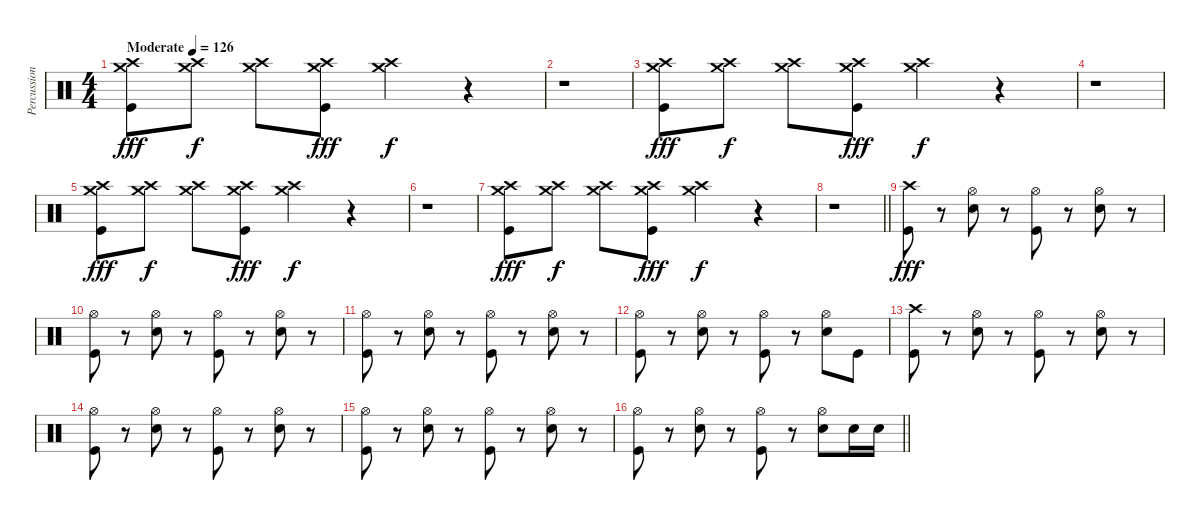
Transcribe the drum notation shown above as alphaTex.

\track ("Percussions" "Percussion") {instrument percussion}
\staff {score}
\articulation defaults
\ts (4 4)
\tempo (126 "Moderate")
\clef neutral
\ks c
("Crash high (hit)" "Crash medium (hit)" "Kick (hit)").8{dy fff} ("Crash high (hit)" "Crash medium (hit)").8{dy f} ("Crash high (hit)" "Crash medium (hit)").8 ("Crash high (hit)" "Crash medium (hit)" "Kick (hit)").8{dy fff} ("Crash high (hit)" "Crash medium (hit)").4{dy f} r.4 |
r.1 |
("Crash high (hit)" "Crash medium (hit)" "Kick (hit)").8{dy fff} ("Crash high (hit)" "Crash medium (hit)").8{dy f} ("Crash high (hit)" "Crash medium (hit)").8 ("Crash high (hit)" "Crash medium (hit)" "Kick (hit)").8{dy fff} ("Crash high (hit)" "Crash medium (hit)").4{dy f} r.4 |
r.1 |
("Crash high (hit)" "Crash medium (hit)" "Kick (hit)").8{dy fff} ("Crash high (hit)" "Crash medium (hit)").8{dy f} ("Crash high (hit)" "Crash medium (hit)").8 ("Crash high (hit)" "Crash medium (hit)" "Kick (hit)").8{dy fff} ("Crash high (hit)" "Crash medium (hit)").4{dy f} r.4 |
r.1 |
("Crash high (hit)" "Crash medium (hit)" "Kick (hit)").8{dy fff} ("Crash high (hit)" "Crash medium (hit)").8{dy f} ("Crash high (hit)" "Crash medium (hit)").8 ("Crash high (hit)" "Crash medium (hit)" "Kick (hit)").8{dy fff} ("Crash high (hit)" "Crash medium (hit)").4{dy f} r.4 |
\barLineRight lightlight
r.1 |
("Crash high (hit)" "Kick (hit)").8{dy fff} r.8 ("Hi-Hat (open)" "Electric Snare (hit)").8 r.8 ("Hi-Hat (open)" "Kick (hit)").8 r.8 ("Hi-Hat (open)" "Electric Snare (hit)").8 r.8 |
("Hi-Hat (open)" "Kick (hit)").8 r.8 ("Hi-Hat (open)" "Electric Snare (hit)").8 r.8 ("Hi-Hat (open)" "Kick (hit)").8 r.8 ("Hi-Hat (open)" "Electric Snare (hit)").8 r.8 |
("Hi-Hat (open)" "Kick (hit)").8 r.8 ("Hi-Hat (open)" "Electric Snare (hit)").8 r.8 ("Hi-Hat (open)" "Kick (hit)").8 r.8 ("Hi-Hat (open)" "Electric Snare (hit)").8 r.8 |
("Hi-Hat (open)" "Kick (hit)").8 r.8 ("Hi-Hat (open)" "Electric Snare (hit)").8 r.8 ("Hi-Hat (open)" "Kick (hit)").8 r.8 ("Hi-Hat (open)" "Electric Snare (hit)").8 "Kick (hit)".8 |
("Crash high (hit)" "Kick (hit)").8 r.8 ("Hi-Hat (open)" "Electric Snare (hit)").8 r.8 ("Hi-Hat (open)" "Kick (hit)").8 r.8 ("Hi-Hat (open)" "Electric Snare (hit)").8 r.8 |
("Hi-Hat (open)" "Kick (hit)").8 r.8 ("Hi-Hat (open)" "Electric Snare (hit)").8 r.8 ("Hi-Hat (open)" "Kick (hit)").8 r.8 ("Hi-Hat (open)" "Electric Snare (hit)").8 r.8 |
("Hi-Hat (open)" "Kick (hit)").8 r.8 ("Hi-Hat (open)" "Electric Snare (hit)").8 r.8 ("Hi-Hat (open)" "Kick (hit)").8 r.8 ("Hi-Hat (open)" "Electric Snare (hit)").8 r.8 |
\barLineRight lightlight
("Hi-Hat (open)" "Kick (hit)").8 r.8 ("Hi-Hat (open)" "Electric Snare (hit)").8 r.8 ("Hi-Hat (open)" "Kick (hit)").8 r.8 ("Hi-Hat (open)" "Electric Snare (hit)").8 "Electric Snare (hit)".16 "Electric Snare (hit)".16
